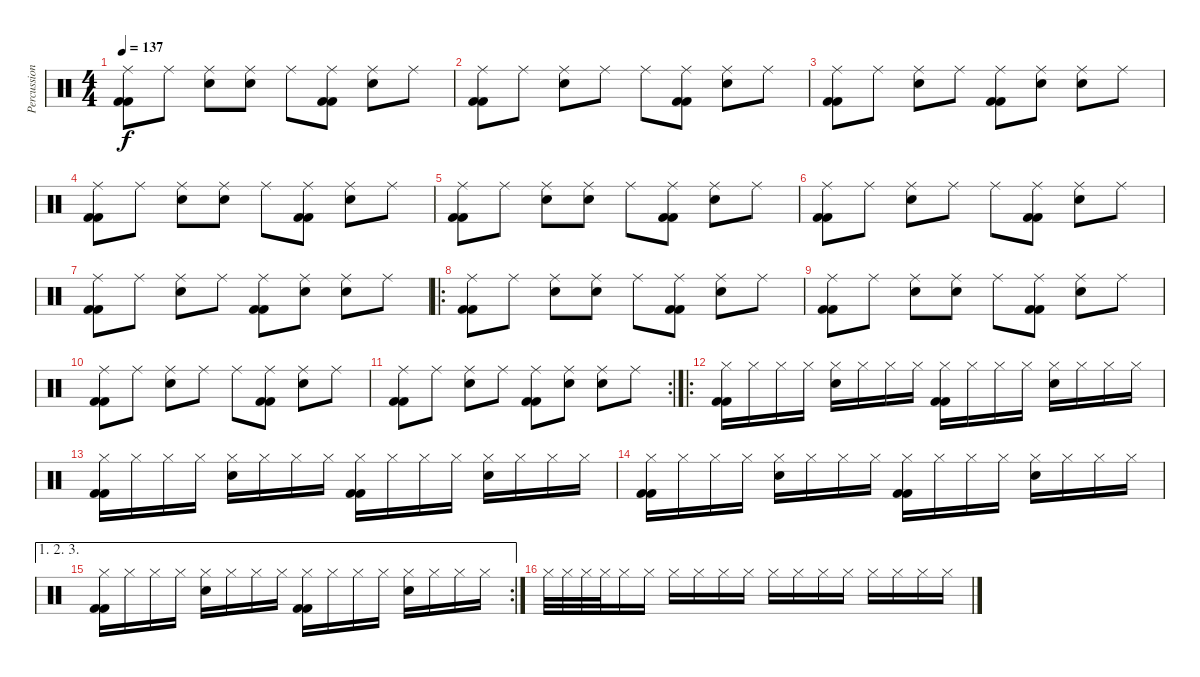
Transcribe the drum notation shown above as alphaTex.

\track ("Percussions" "Percussion") {instrument percussion}
\staff {score}
\articulation defaults
\ts (4 4)
\tempo 137
\clef neutral
\ks c
("Kick (hit) 2" "Kick (hit) 2" "Ride (middle)").8{dy f} "Ride (middle)".8 ("Snare (hit) 2" "Ride (middle)").8 ("Snare (hit) 2" "Ride (middle)").8 "Ride (middle)".8 ("Kick (hit) 2" "Kick (hit) 2" "Ride (middle)").8 ("Snare (hit) 2" "Ride (middle)").8 "Ride (middle)".8 |
("Kick (hit) 2" "Kick (hit) 2" "Ride (middle)").8 "Ride (middle)".8 ("Snare (hit) 2" "Ride (middle)").8 "Ride (middle)".8 "Ride (middle)".8 ("Kick (hit) 2" "Kick (hit) 2" "Ride (middle)").8 ("Snare (hit) 2" "Ride (middle)").8 "Ride (middle)".8 |
("Kick (hit) 2" "Kick (hit) 2" "Ride (middle)").8 "Ride (middle)".8 ("Snare (hit) 2" "Ride (middle)").8 "Ride (middle)".8 ("Kick (hit) 2" "Kick (hit) 2" "Ride (middle)").8 ("Snare (hit) 2" "Ride (middle)").8 ("Snare (hit) 2" "Ride (middle)").8 "Ride (middle)".8 |
("Kick (hit) 2" "Kick (hit) 2" "Ride (middle)").8 "Ride (middle)".8 ("Snare (hit) 2" "Ride (middle)").8 ("Snare (hit) 2" "Ride (middle)").8 "Ride (middle)".8 ("Kick (hit) 2" "Kick (hit) 2" "Ride (middle)").8 ("Snare (hit) 2" "Ride (middle)").8 "Ride (middle)".8 |
("Kick (hit) 2" "Kick (hit) 2" "Ride (middle)").8 "Ride (middle)".8 ("Snare (hit) 2" "Ride (middle)").8 ("Snare (hit) 2" "Ride (middle)").8 "Ride (middle)".8 ("Kick (hit) 2" "Kick (hit) 2" "Ride (middle)").8 ("Snare (hit) 2" "Ride (middle)").8 "Ride (middle)".8 |
("Kick (hit) 2" "Kick (hit) 2" "Ride (middle)").8 "Ride (middle)".8 ("Snare (hit) 2" "Ride (middle)").8 "Ride (middle)".8 "Ride (middle)".8 ("Kick (hit) 2" "Kick (hit) 2" "Ride (middle)").8 ("Snare (hit) 2" "Ride (middle)").8 "Ride (middle)".8 |
("Kick (hit) 2" "Kick (hit) 2" "Ride (middle)").8 "Ride (middle)".8 ("Snare (hit) 2" "Ride (middle)").8 "Ride (middle)".8 ("Kick (hit) 2" "Kick (hit) 2" "Ride (middle)").8 ("Snare (hit) 2" "Ride (middle)").8 ("Snare (hit) 2" "Ride (middle)").8 "Ride (middle)".8 |
\ro
("Kick (hit) 2" "Kick (hit) 2" "Ride (middle)").8 "Ride (middle)".8 ("Snare (hit) 2" "Ride (middle)").8 ("Snare (hit) 2" "Ride (middle)").8 "Ride (middle)".8 ("Kick (hit) 2" "Kick (hit) 2" "Ride (middle)").8 ("Snare (hit) 2" "Ride (middle)").8 "Ride (middle)".8 |
("Kick (hit) 2" "Kick (hit) 2" "Ride (middle)").8 "Ride (middle)".8 ("Snare (hit) 2" "Ride (middle)").8 ("Snare (hit) 2" "Ride (middle)").8 "Ride (middle)".8 ("Kick (hit) 2" "Kick (hit) 2" "Ride (middle)").8 ("Snare (hit) 2" "Ride (middle)").8 "Ride (middle)".8 |
("Kick (hit) 2" "Kick (hit) 2" "Ride (middle)").8 "Ride (middle)".8 ("Snare (hit) 2" "Ride (middle)").8 "Ride (middle)".8 "Ride (middle)".8 ("Kick (hit) 2" "Kick (hit) 2" "Ride (middle)").8 ("Snare (hit) 2" "Ride (middle)").8 "Ride (middle)".8 |
\rc 2
("Kick (hit) 2" "Kick (hit) 2" "Ride (middle)").8 "Ride (middle)".8 ("Snare (hit) 2" "Ride (middle)").8 "Ride (middle)".8 ("Kick (hit) 2" "Kick (hit) 2" "Ride (middle)").8 ("Snare (hit) 2" "Ride (middle)").8 ("Snare (hit) 2" "Ride (middle)").8 "Ride (middle)".8 |
\ro
("Kick (hit) 2" "Kick (hit) 2" "Hi-Hat (closed)").16 "Hi-Hat (closed)".16 "Hi-Hat (closed)".16 "Hi-Hat (closed)".16 ("Snare (hit) 2" "Hi-Hat (closed)").16 "Hi-Hat (closed)".16 "Hi-Hat (closed)".16 "Hi-Hat (closed)".16 ("Kick (hit) 2" "Kick (hit) 2" "Hi-Hat (closed)").16 "Hi-Hat (closed)".16 "Hi-Hat (closed)".16 "Hi-Hat (closed)".16 ("Snare (hit) 2" "Hi-Hat (closed)").16 "Hi-Hat (closed)".16 "Hi-Hat (closed)".16 "Hi-Hat (closed)".16 |
("Kick (hit) 2" "Kick (hit) 2" "Hi-Hat (closed)").16 "Hi-Hat (closed)".16 "Hi-Hat (closed)".16 "Hi-Hat (closed)".16 ("Snare (hit) 2" "Hi-Hat (closed)").16 "Hi-Hat (closed)".16 "Hi-Hat (closed)".16 "Hi-Hat (closed)".16 ("Kick (hit) 2" "Kick (hit) 2" "Hi-Hat (closed)").16 "Hi-Hat (closed)".16 "Hi-Hat (closed)".16 "Hi-Hat (closed)".16 ("Snare (hit) 2" "Hi-Hat (closed)").16 "Hi-Hat (closed)".16 "Hi-Hat (closed)".16 "Hi-Hat (closed)".16 |
("Kick (hit) 2" "Kick (hit) 2" "Hi-Hat (closed)").16 "Hi-Hat (closed)".16 "Hi-Hat (closed)".16 "Hi-Hat (closed)".16 ("Snare (hit) 2" "Hi-Hat (closed)").16 "Hi-Hat (closed)".16 "Hi-Hat (closed)".16 "Hi-Hat (closed)".16 ("Kick (hit) 2" "Kick (hit) 2" "Hi-Hat (closed)").16 "Hi-Hat (closed)".16 "Hi-Hat (closed)".16 "Hi-Hat (closed)".16 ("Snare (hit) 2" "Hi-Hat (closed)").16 "Hi-Hat (closed)".16 "Hi-Hat (closed)".16 "Hi-Hat (closed)".16 |
\ae (1 2 3)
\rc 2
("Kick (hit) 2" "Kick (hit) 2" "Hi-Hat (closed)").16 "Hi-Hat (closed)".16 "Hi-Hat (closed)".16 "Hi-Hat (closed)".16 ("Snare (hit) 2" "Hi-Hat (closed)").16 "Hi-Hat (closed)".16 "Hi-Hat (closed)".16 "Hi-Hat (closed)".16 ("Kick (hit) 2" "Kick (hit) 2" "Hi-Hat (closed)").16 "Hi-Hat (closed)".16 "Hi-Hat (closed)".16 "Hi-Hat (closed)".16 ("Snare (hit) 2" "Hi-Hat (closed)").16 "Hi-Hat (closed)".16 "Hi-Hat (closed)".16 "Hi-Hat (closed)".16 |
"Hi-Hat (closed)".32 "Hi-Hat (closed)".32 "Hi-Hat (closed)".32 "Hi-Hat (closed)".32 "Hi-Hat (closed)".16 "Hi-Hat (closed)".16 "Hi-Hat (closed)".16 "Hi-Hat (closed)".16 "Hi-Hat (closed)".16 "Hi-Hat (closed)".16 "Hi-Hat (closed)".16 "Hi-Hat (closed)".16 "Hi-Hat (closed)".16 "Hi-Hat (closed)".16 "Hi-Hat (closed)".16 "Hi-Hat (closed)".16 "Hi-Hat (closed)".16 "Hi-Hat (closed)".16
